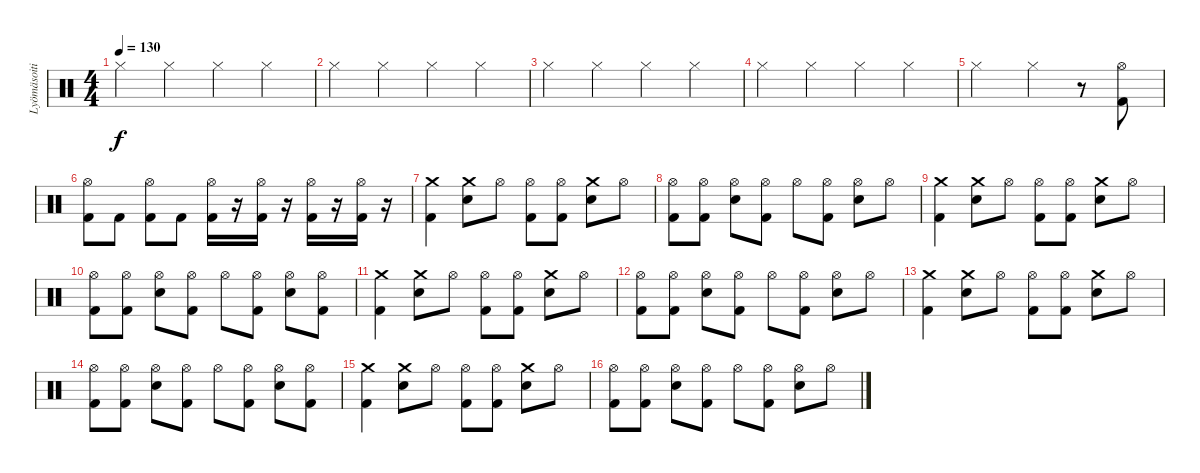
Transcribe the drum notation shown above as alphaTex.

\track ("Lyömäsoitin" "Lyömäsoiti") {instrument percussion}
\staff {score}
\articulation defaults
\ts (4 4)
\tempo 130
\clef neutral
\ks c "Hi-Hat (closed)".4{dy f} "Hi-Hat (closed)".4 "Hi-Hat (closed)".4 "Hi-Hat (closed)".4
|
"Hi-Hat (closed)".4 "Hi-Hat (closed)".4 "Hi-Hat (closed)".4 "Hi-Hat (closed)".4 |
"Hi-Hat (closed)".4 "Hi-Hat (closed)".4 "Hi-Hat (closed)".4 "Hi-Hat (closed)".4 |
"Hi-Hat (closed)".4 "Hi-Hat (closed)".4 "Hi-Hat (closed)".4 "Hi-Hat (closed)".4 |
"Hi-Hat (closed)".2 "Hi-Hat (closed)".4 r.8 ("Hi-Hat (open)" "Kick (hit) 2").8 |
("Hi-Hat (open)" "Kick (hit) 2").8 "Kick (hit) 2".8 ("Hi-Hat (open)" "Kick (hit) 2").8 "Kick (hit) 2".8 ("Hi-Hat (open)" "Kick (hit) 2").16 r.16 ("Hi-Hat (open)" "Kick (hit) 2").16 r.16 ("Hi-Hat (open)" "Kick (hit) 2").16 r.16 ("Hi-Hat (open)" "Kick (hit) 2").16 r.16 |
("Kick (hit) 2" "Crash medium (hit)").4 ("Snare (hit) 2" "Crash medium (hit)").8 "Hi-Hat (open)".8 ("Kick (hit) 2" "Hi-Hat (open)").8 ("Kick (hit) 2" "Hi-Hat (open)").8 ("Snare (hit) 2" "Crash medium (hit)").8 "Hi-Hat (open)".8 |
("Kick (hit) 2" "Hi-Hat (open)").8 ("Kick (hit) 2" "Hi-Hat (open)").8 ("Snare (hit) 2" "Hi-Hat (open)").8 ("Hi-Hat (open)" "Kick (hit) 2").8 "Hi-Hat (open)".8 ("Kick (hit) 2" "Hi-Hat (open)").8 ("Snare (hit) 2" "Hi-Hat (open)").8 "Hi-Hat (open)".8 |
("Kick (hit) 2" "Crash medium (hit)").4 ("Snare (hit) 2" "Crash medium (hit)").8 "Hi-Hat (open)".8 ("Kick (hit) 2" "Hi-Hat (open)").8 ("Kick (hit) 2" "Hi-Hat (open)").8 ("Snare (hit) 2" "Crash medium (hit)").8 "Hi-Hat (open)".8 |
("Kick (hit) 2" "Hi-Hat (open)").8 ("Kick (hit) 2" "Hi-Hat (open)").8 ("Snare (hit) 2" "Hi-Hat (open)").8 ("Hi-Hat (open)" "Kick (hit) 2").8 "Hi-Hat (open)".8 ("Kick (hit) 2" "Hi-Hat (open)").8 ("Snare (hit) 2" "Hi-Hat (open)").8 ("Hi-Hat (open)" "Kick (hit) 2").8 |
("Kick (hit) 2" "Crash medium (hit)").4 ("Snare (hit) 2" "Crash medium (hit)").8 "Hi-Hat (open)".8 ("Kick (hit) 2" "Hi-Hat (open)").8 ("Kick (hit) 2" "Hi-Hat (open)").8 ("Snare (hit) 2" "Crash medium (hit)").8 "Hi-Hat (open)".8 |
("Kick (hit) 2" "Hi-Hat (open)").8 ("Kick (hit) 2" "Hi-Hat (open)").8 ("Snare (hit) 2" "Hi-Hat (open)").8 ("Hi-Hat (open)" "Kick (hit) 2").8 "Hi-Hat (open)".8 ("Kick (hit) 2" "Hi-Hat (open)").8 ("Snare (hit) 2" "Hi-Hat (open)").8 "Hi-Hat (open)".8 |
("Kick (hit) 2" "Crash medium (hit)").4 ("Snare (hit) 2" "Crash medium (hit)").8 "Hi-Hat (open)".8 ("Kick (hit) 2" "Hi-Hat (open)").8 ("Kick (hit) 2" "Hi-Hat (open)").8 ("Snare (hit) 2" "Crash medium (hit)").8 "Hi-Hat (open)".8 |
("Kick (hit) 2" "Hi-Hat (open)").8 ("Kick (hit) 2" "Hi-Hat (open)").8 ("Snare (hit) 2" "Hi-Hat (open)").8 ("Hi-Hat (open)" "Kick (hit) 2").8 "Hi-Hat (open)".8 ("Kick (hit) 2" "Hi-Hat (open)").8 ("Snare (hit) 2" "Hi-Hat (open)").8 ("Hi-Hat (open)" "Kick (hit) 2").8 |
("Kick (hit) 2" "Crash medium (hit)").4 ("Snare (hit) 2" "Crash medium (hit)").8 "Hi-Hat (open)".8 ("Kick (hit) 2" "Hi-Hat (open)").8 ("Kick (hit) 2" "Hi-Hat (open)").8 ("Snare (hit) 2" "Crash medium (hit)").8 "Hi-Hat (open)".8 |
("Kick (hit) 2" "Hi-Hat (open)").8 ("Kick (hit) 2" "Hi-Hat (open)").8 ("Snare (hit) 2" "Hi-Hat (open)").8 ("Hi-Hat (open)" "Kick (hit) 2").8 "Hi-Hat (open)".8 ("Kick (hit) 2" "Hi-Hat (open)").8 ("Snare (hit) 2" "Hi-Hat (open)").8 "Hi-Hat (open)".8
